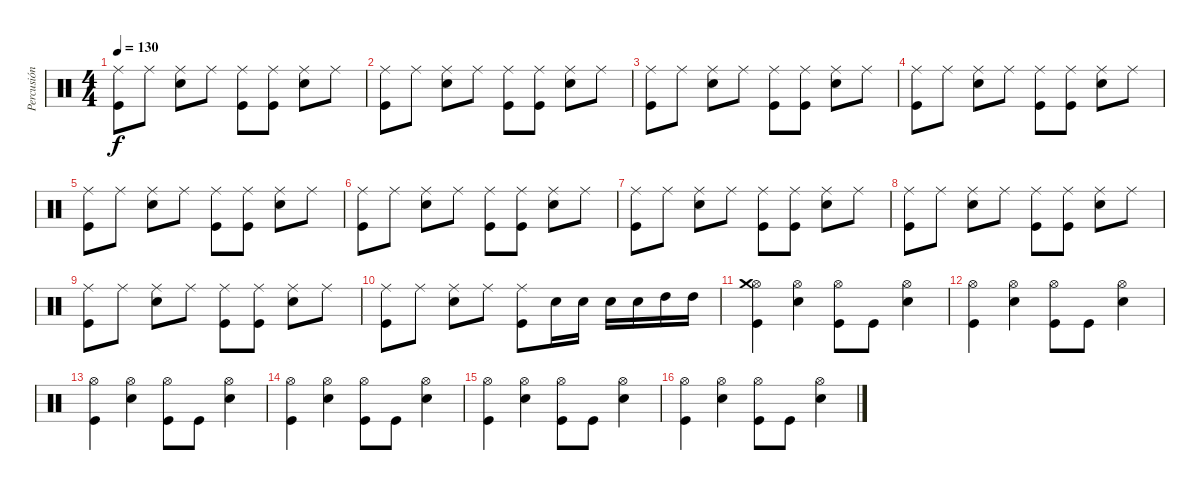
\track ("Percusión" "Percusión") {instrument percussion}
\staff {score}
\articulation defaults
\ts (4 4)
\tempo 130
\clef neutral
\ks c
("Kick (hit)" "Ride (middle)").8{dy f} "Ride (middle)".8 ("Ride (middle)" "Snare (hit) 2").8 "Ride (middle)".8 ("Ride (middle)" "Kick (hit)").8 ("Ride (middle)" "Kick (hit)").8 ("Ride (middle)" "Snare (hit) 2").8 "Ride (middle)".8 |
("Kick (hit)" "Ride (middle)").8 "Ride (middle)".8 ("Ride (middle)" "Snare (hit) 2").8 "Ride (middle)".8 ("Ride (middle)" "Kick (hit)").8 ("Ride (middle)" "Kick (hit)").8 ("Ride (middle)" "Snare (hit) 2").8 "Ride (middle)".8 |
("Kick (hit)" "Ride (middle)").8 "Ride (middle)".8 ("Ride (middle)" "Snare (hit) 2").8 "Ride (middle)".8 ("Ride (middle)" "Kick (hit)").8 ("Ride (middle)" "Kick (hit)").8 ("Ride (middle)" "Snare (hit) 2").8 "Ride (middle)".8 |
("Kick (hit)" "Ride (middle)").8 "Ride (middle)".8 ("Ride (middle)" "Snare (hit) 2").8 "Ride (middle)".8 ("Ride (middle)" "Kick (hit)").8 ("Ride (middle)" "Kick (hit)").8 ("Ride (middle)" "Snare (hit) 2").8 "Ride (middle)".8 |
("Kick (hit)" "Ride (middle)").8 "Ride (middle)".8 ("Ride (middle)" "Snare (hit) 2").8 "Ride (middle)".8 ("Ride (middle)" "Kick (hit)").8 ("Ride (middle)" "Kick (hit)").8 ("Ride (middle)" "Snare (hit) 2").8 "Ride (middle)".8 |
("Kick (hit)" "Ride (middle)").8 "Ride (middle)".8 ("Ride (middle)" "Snare (hit) 2").8 "Ride (middle)".8 ("Ride (middle)" "Kick (hit)").8 ("Ride (middle)" "Kick (hit)").8 ("Ride (middle)" "Snare (hit) 2").8 "Ride (middle)".8 |
("Kick (hit)" "Ride (middle)").8 "Ride (middle)".8 ("Ride (middle)" "Snare (hit) 2").8 "Ride (middle)".8 ("Ride (middle)" "Kick (hit)").8 ("Ride (middle)" "Kick (hit)").8 ("Ride (middle)" "Snare (hit) 2").8 "Ride (middle)".8 |
("Kick (hit)" "Ride (middle)").8 "Ride (middle)".8 ("Ride (middle)" "Snare (hit) 2").8 "Ride (middle)".8 ("Ride (middle)" "Kick (hit)").8 ("Ride (middle)" "Kick (hit)").8 ("Ride (middle)" "Snare (hit) 2").8 "Ride (middle)".8 |
("Kick (hit)" "Ride (middle)").8 "Ride (middle)".8 ("Ride (middle)" "Snare (hit) 2").8 "Ride (middle)".8 ("Ride (middle)" "Kick (hit)").8 ("Ride (middle)" "Kick (hit)").8 ("Ride (middle)" "Snare (hit) 2").8 "Ride (middle)".8 |
("Kick (hit)" "Ride (middle)").8 "Ride (middle)".8 ("Ride (middle)" "Snare (hit) 2").8 "Ride (middle)".8 ("Ride (middle)" "Kick (hit)").8 "Snare (hit) 2".16 "Snare (hit) 2".16 "Snare (hit) 2".16 "Snare (hit) 2".16 "High Tom (hit)".16 "High Tom (hit)".16 |
("Kick (hit)" "Hi-Hat (open)" "Crash medium (hit)").4 ("Hi-Hat (open)" "Snare (hit) 2").4 ("Hi-Hat (open)" "Kick (hit)").8 "Kick (hit)".8 ("Hi-Hat (open)" "Snare (hit) 2").4 |
("Kick (hit)" "Hi-Hat (open)").4 ("Hi-Hat (open)" "Snare (hit) 2").4 ("Hi-Hat (open)" "Kick (hit)").8 "Kick (hit)".8 ("Hi-Hat (open)" "Snare (hit) 2").4 |
("Kick (hit)" "Hi-Hat (open)").4 ("Hi-Hat (open)" "Snare (hit) 2").4 ("Hi-Hat (open)" "Kick (hit)").8 "Kick (hit)".8 ("Hi-Hat (open)" "Snare (hit) 2").4 |
("Kick (hit)" "Hi-Hat (open)").4 ("Hi-Hat (open)" "Snare (hit) 2").4 ("Hi-Hat (open)" "Kick (hit)").8 "Kick (hit)".8 ("Hi-Hat (open)" "Snare (hit) 2").4 |
("Kick (hit)" "Hi-Hat (open)").4 ("Hi-Hat (open)" "Snare (hit) 2").4 ("Hi-Hat (open)" "Kick (hit)").8 "Kick (hit)".8 ("Hi-Hat (open)" "Snare (hit) 2").4 |
("Kick (hit)" "Hi-Hat (open)").4 ("Hi-Hat (open)" "Snare (hit) 2").4 ("Hi-Hat (open)" "Kick (hit)").8 "Kick (hit)".8 ("Hi-Hat (open)" "Snare (hit) 2").4
